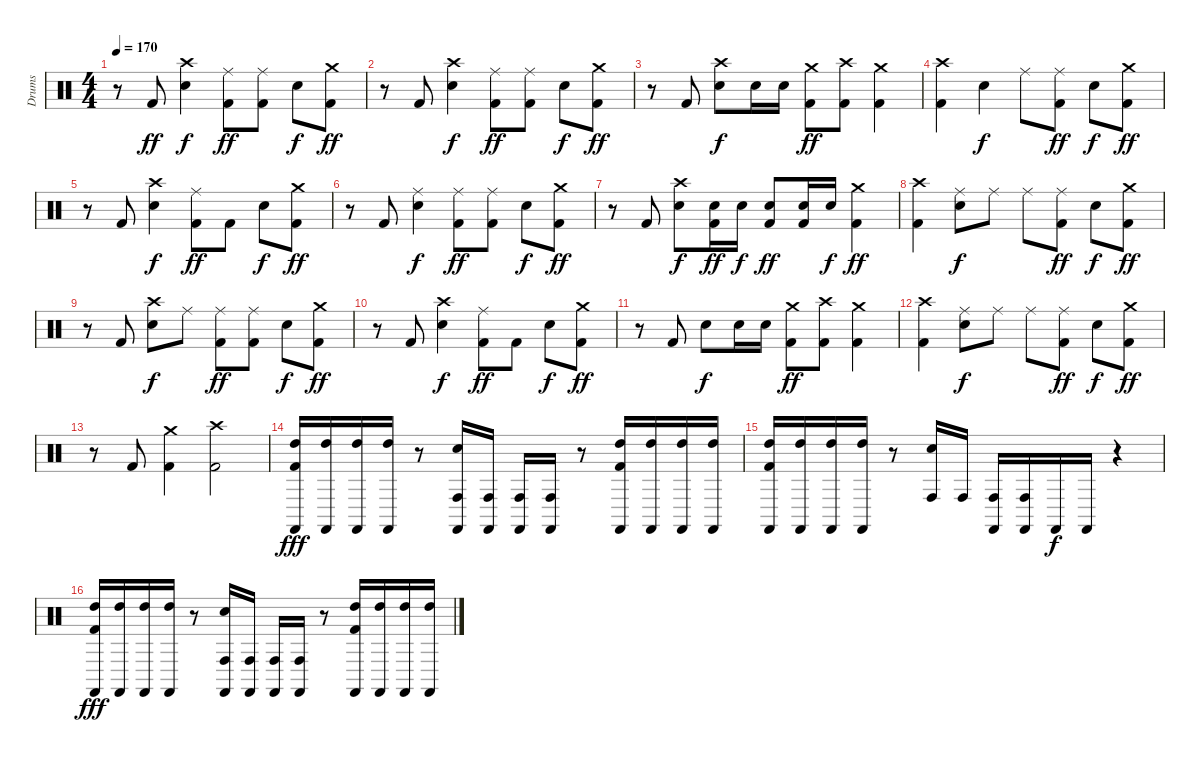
\track ("Drums" "Drums") {instrument percussion}
\staff {score}
\articulation defaults
\ts (4 4)
\tempo 170
\clef neutral
\ks c
r.8{dy ff} "Kick (hit) 2".8 ("Crash high (hit)" "Snare (hit) 2").4{dy f} ("Ride (middle)" "Kick (hit) 2").8{dy ff} ("Ride (middle)" "Kick (hit) 2").8 "Snare (hit) 2".8{dy f} ("Crash medium (hit)" "Kick (hit) 2").8{dy ff} |
r.8 "Kick (hit) 2".8 ("Crash high (hit)" "Snare (hit) 2").4{dy f} ("Ride (middle)" "Kick (hit) 2").8{dy ff} ("Ride (middle)" "Kick (hit) 2").8 "Snare (hit) 2".8{dy f} ("Crash medium (hit)" "Kick (hit) 2").8{dy ff} |
r.8 "Kick (hit) 2".8 ("Crash high (hit)" "Snare (hit) 2").8{dy f} "Snare (hit) 2".16 "Snare (hit) 2".16 ("Crash medium (hit)" "Kick (hit) 2").8{dy ff} ("Crash high (hit)" "Kick (hit) 2").8 ("Crash medium (hit)" "Kick (hit) 2").4 |
("Crash high (hit)" "Kick (hit) 2").4 "Snare (hit) 2".4{dy f} "Ride (middle)".8 ("Ride (middle)" "Kick (hit) 2").8{dy ff} "Snare (hit) 2".8{dy f} ("Crash medium (hit)" "Kick (hit) 2").8{dy ff} |
r.8 "Kick (hit) 2".8 ("Snare (hit) 2" "Crash high (hit)").4{dy f} ("Kick (hit) 2" "Ride (middle)").8{dy ff} "Kick (hit) 2".8 "Snare (hit) 2".8{dy f} ("Kick (hit) 2" "Crash medium (hit)").8{dy ff} |
r.8 "Kick (hit) 2".8 ("Ride (middle)" "Snare (hit) 2").4{dy f} ("Ride (middle)" "Kick (hit) 2").8{dy ff} ("Ride (middle)" "Kick (hit) 2").8 "Snare (hit) 2".8{dy f} ("Crash medium (hit)" "Kick (hit) 2").8{dy ff} |
r.8 "Kick (hit) 2".8 ("Crash high (hit)" "Snare (hit) 2").8{dy f} ("Snare (hit) 2" "Kick (hit) 2").16{dy ff} "Snare (hit) 2".16{dy f} ("Kick (hit) 2" "Snare (hit) 2").8{dy ff} ("Kick (hit) 2" "Snare (hit) 2").16 "Snare (hit) 2".16{dy f} ("Crash medium (hit)" "Kick (hit) 2").4{dy ff} |
("Kick (hit) 2" "Crash high (hit)").4 ("Snare (hit) 2" "Ride (middle)").8{dy f} "Ride (middle)".8 "Ride (middle)".8 ("Kick (hit) 2" "Ride (middle)").8{dy ff} "Snare (hit) 2".8{dy f} ("Kick (hit) 2" "Crash medium (hit)").8{dy ff} |
r.8 "Kick (hit) 2".8 ("Crash high (hit)" "Snare (hit) 2").8{dy f} "Ride (middle)".8 ("Ride (middle)" "Kick (hit) 2").8{dy ff} ("Ride (middle)" "Kick (hit) 2").8 "Snare (hit) 2".8{dy f} ("Crash medium (hit)" "Kick (hit) 2").8{dy ff} |
r.8 "Kick (hit) 2".8 ("Snare (hit) 2" "Crash high (hit)").4{dy f} ("Kick (hit) 2" "Ride (middle)").8{dy ff} "Kick (hit) 2".8 "Snare (hit) 2".8{dy f} ("Kick (hit) 2" "Crash medium (hit)").8{dy ff} |
r.8 "Kick (hit) 2".8 "Snare (hit) 2".8{dy f} "Snare (hit) 2".16 "Snare (hit) 2".16 ("Crash medium (hit)" "Kick (hit) 2").8{dy ff} ("Crash high (hit)" "Kick (hit) 2").8 ("Crash medium (hit)" "Kick (hit) 2").4 |
("Crash high (hit)" "Kick (hit) 2").4 ("Snare (hit) 2" "Ride (middle)").8{dy f} "Ride (middle)".8 "Ride (middle)".8 ("Kick (hit) 2" "Ride (middle)").8{dy ff} "Snare (hit) 2".8{dy f} ("Kick (hit) 2" "Crash medium (hit)").8{dy ff} |
r.8 "Kick (hit) 2".8 ("Crash medium (hit)" "Kick (hit) 2").4 ("Crash high (hit)" "Kick (hit) 2").2 |
("Castanets (hit)" "Kick (hit) 2" "High Tom (hit)").16{dy fff balance 0} ("Castanets (hit)" "High Tom (hit)").16 ("Castanets (hit)" "High Tom (hit)").16 ("Castanets (hit)" "High Tom (hit)").16 r.8 ("Castanets (hit)" "Snare (hit) 2" "Conga high (hit)").16 ("Castanets (hit)" "Conga high (hit)").16 ("Castanets (hit)" "Conga high (hit)").16 ("Castanets (hit)" "Conga high (hit)").16 r.8 ("Castanets (hit)" "Kick (hit) 2" "High Tom (hit)").16 ("Castanets (hit)" "High Tom (hit)").16 ("Castanets (hit)" "High Tom (hit)").16 ("Castanets (hit)" "High Tom (hit)").16 |
("Castanets (hit)" "Kick (hit) 2" "High Tom (hit)").16 ("Castanets (hit)" "High Tom (hit)").16 ("Castanets (hit)" "High Tom (hit)").16 ("Castanets (hit)" "High Tom (hit)").16 r.8 ("Snare (hit) 2" "Conga high (hit)").16 "Conga high (hit)".16 ("Castanets (hit)" "Conga high (hit)").16 ("Castanets (hit)" "Conga high (hit)").16 "Castanets (hit)".16{dy f} "Castanets (hit)".16 r.4 |
("Castanets (hit)" "Kick (hit) 2" "High Tom (hit)").16{dy fff} ("Castanets (hit)" "High Tom (hit)").16 ("Castanets (hit)" "High Tom (hit)").16 ("Castanets (hit)" "High Tom (hit)").16 r.8 ("Castanets (hit)" "Snare (hit) 2" "Conga high (hit)").16 ("Castanets (hit)" "Conga high (hit)").16 ("Castanets (hit)" "Conga high (hit)").16 ("Castanets (hit)" "Conga high (hit)").16 r.8 ("Castanets (hit)" "Kick (hit) 2" "High Tom (hit)").16 ("Castanets (hit)" "High Tom (hit)").16 ("Castanets (hit)" "High Tom (hit)").16 ("Castanets (hit)" "High Tom (hit)").16
